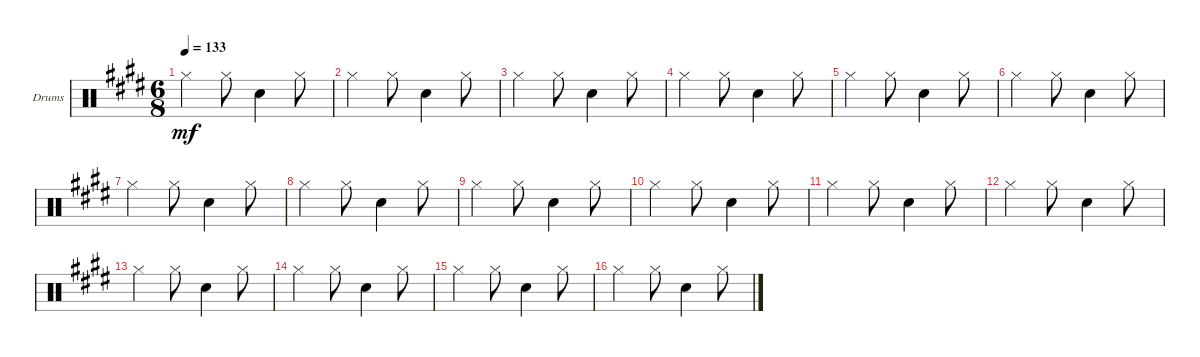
\defaultSystemsLayout 4
\bracketExtendMode groupsimilarinstruments
\firstSystemTrackNameOrientation horizontal
\otherSystemsTrackNameOrientation horizontal
\track ("Drumkit" "Drums") {instrument percussion}
\staff {score}
\articulation defaults
\ts (6 8)
\tempo 133
\clef neutral
\scale
0.333333
\ks e "Hi-Hat (closed)".4{dy mf} "Hi-Hat (closed)".8 "Snare (hit) 2".4 "Hi-Hat (closed)".8
|
\scale
0.333333 "Hi-Hat (closed)".4 "Hi-Hat (closed)".8 "Snare (hit) 2".4 "Hi-Hat (closed)".8 |
\scale
0.333333 "Hi-Hat (closed)".4 "Hi-Hat (closed)".8 "Snare (hit) 2".4 "Hi-Hat (closed)".8 |
\scale
0.333333 "Hi-Hat (closed)".4 "Hi-Hat (closed)".8 "Snare (hit) 2".4 "Hi-Hat (closed)".8 |
\scale
0.333333 "Hi-Hat (closed)".4 "Hi-Hat (closed)".8 "Snare (hit) 2".4 "Hi-Hat (closed)".8 |
\scale
0.333333 "Hi-Hat (closed)".4 "Hi-Hat (closed)".8 "Snare (hit) 2".4 "Hi-Hat (closed)".8 |
\scale
0.333333 "Hi-Hat (closed)".4 "Hi-Hat (closed)".8 "Snare (hit) 2".4 "Hi-Hat (closed)".8 |
\scale
0.333333 "Hi-Hat (closed)".4 "Hi-Hat (closed)".8 "Snare (hit) 2".4 "Hi-Hat (closed)".8 |
\scale
0.333333 "Hi-Hat (closed)".4 "Hi-Hat (closed)".8 "Snare (hit) 2".4 "Hi-Hat (closed)".8 |
\scale
0.333333 "Hi-Hat (closed)".4 "Hi-Hat (closed)".8 "Snare (hit) 2".4 "Hi-Hat (closed)".8 |
\scale
0.333333 "Hi-Hat (closed)".4 "Hi-Hat (closed)".8 "Snare (hit) 2".4 "Hi-Hat (closed)".8 |
\scale
0.333333 "Hi-Hat (closed)".4 "Hi-Hat (closed)".8 "Snare (hit) 2".4 "Hi-Hat (closed)".8 |
\scale
0.333333 "Hi-Hat (closed)".4 "Hi-Hat (closed)".8 "Snare (hit) 2".4 "Hi-Hat (closed)".8 |
\scale
0.333333 "Hi-Hat (closed)".4 "Hi-Hat (closed)".8 "Snare (hit) 2".4 "Hi-Hat (closed)".8 |
\scale
0.333333 "Hi-Hat (closed)".4 "Hi-Hat (closed)".8 "Snare (hit) 2".4 "Hi-Hat (closed)".8 |
\scale
0.333333 "Hi-Hat (closed)".4 "Hi-Hat (closed)".8 "Snare (hit) 2".4 "Hi-Hat (closed)".8
